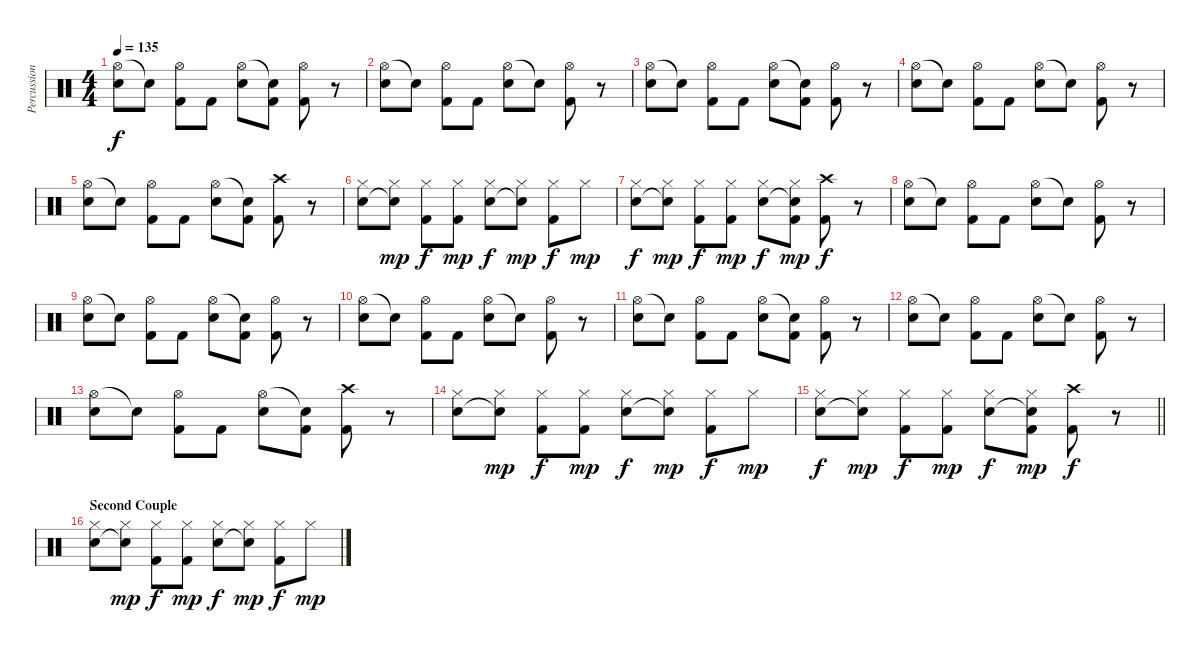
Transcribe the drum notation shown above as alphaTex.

\track ("Percussion" "Percussion") {instrument percussion}
\staff {score}
\articulation defaults
\ts (4 4)
\tempo 135
\clef neutral
\ks c
("Hi-Hat (open)" "Electric Snare (hit)").8{dy f} "Electric Snare (hit)"{t}.8 ("Hi-Hat (open)" "Kick (hit) 2").8 "Kick (hit) 2".8 ("Hi-Hat (open)" "Electric Snare (hit)").8 ("Electric Snare (hit)"{t} "Kick (hit) 2").8 ("Hi-Hat (open)" "Kick (hit) 2").8 r.8 |
("Hi-Hat (open)" "Electric Snare (hit)").8 "Electric Snare (hit)"{t}.8 ("Hi-Hat (open)" "Kick (hit) 2").8 "Kick (hit) 2".8 ("Hi-Hat (open)" "Electric Snare (hit)").8 "Electric Snare (hit)"{t}.8 ("Hi-Hat (open)" "Kick (hit) 2").8 r.8 |
("Hi-Hat (open)" "Electric Snare (hit)").8 "Electric Snare (hit)"{t}.8 ("Hi-Hat (open)" "Kick (hit) 2").8 "Kick (hit) 2".8 ("Hi-Hat (open)" "Electric Snare (hit)").8 ("Electric Snare (hit)"{t} "Kick (hit) 2").8 ("Hi-Hat (open)" "Kick (hit) 2").8 r.8 |
("Hi-Hat (open)" "Electric Snare (hit)").8 "Electric Snare (hit)"{t}.8 ("Hi-Hat (open)" "Kick (hit) 2").8 "Kick (hit) 2".8 ("Hi-Hat (open)" "Electric Snare (hit)").8 "Electric Snare (hit)"{t}.8 ("Hi-Hat (open)" "Kick (hit) 2").8 r.8 |
("Hi-Hat (open)" "Electric Snare (hit)").8 "Electric Snare (hit)"{t}.8 ("Hi-Hat (open)" "Kick (hit) 2").8 "Kick (hit) 2".8 ("Hi-Hat (open)" "Electric Snare (hit)").8 ("Electric Snare (hit)"{t} "Kick (hit) 2").8 ("Crash high (hit)" "Kick (hit) 2").8 r.8 |
("Hi-Hat (closed)" "Electric Snare (hit)").8 ("Hi-Hat (closed)" "Electric Snare (hit)"{t}).8{dy mp} ("Hi-Hat (closed)" "Kick (hit) 2").8{dy f} ("Hi-Hat (closed)" "Kick (hit) 2").8{dy mp} ("Hi-Hat (closed)" "Electric Snare (hit)").8{dy f} ("Hi-Hat (closed)" "Electric Snare (hit)"{t}).8{dy mp} ("Hi-Hat (closed)" "Kick (hit) 2").8{dy f} "Hi-Hat (closed)".8{dy mp} |
("Hi-Hat (closed)" "Electric Snare (hit)").8{dy f} ("Hi-Hat (closed)" "Electric Snare (hit)"{t}).8{dy mp} ("Hi-Hat (closed)" "Kick (hit) 2").8{dy f} ("Hi-Hat (closed)" "Kick (hit) 2").8{dy mp} ("Hi-Hat (closed)" "Electric Snare (hit)").8{dy f} ("Hi-Hat (closed)" "Electric Snare (hit)"{t} "Kick (hit) 2").8{dy mp} ("Crash high (hit)" "Kick (hit) 2").8{dy f} r.8 |
("Hi-Hat (open)" "Electric Snare (hit)").8 "Electric Snare (hit)"{t}.8 ("Hi-Hat (open)" "Kick (hit) 2").8 "Kick (hit) 2".8 ("Hi-Hat (open)" "Electric Snare (hit)").8 "Electric Snare (hit)"{t}.8 ("Hi-Hat (open)" "Kick (hit) 2").8 r.8 |
("Hi-Hat (open)" "Electric Snare (hit)").8 "Electric Snare (hit)"{t}.8 ("Hi-Hat (open)" "Kick (hit) 2").8 "Kick (hit) 2".8 ("Hi-Hat (open)" "Electric Snare (hit)").8 ("Electric Snare (hit)"{t} "Kick (hit) 2").8 ("Hi-Hat (open)" "Kick (hit) 2").8 r.8 |
("Hi-Hat (open)" "Electric Snare (hit)").8 "Electric Snare (hit)"{t}.8 ("Hi-Hat (open)" "Kick (hit) 2").8 "Kick (hit) 2".8 ("Hi-Hat (open)" "Electric Snare (hit)").8 "Electric Snare (hit)"{t}.8 ("Hi-Hat (open)" "Kick (hit) 2").8 r.8 |
("Hi-Hat (open)" "Electric Snare (hit)").8 "Electric Snare (hit)"{t}.8 ("Hi-Hat (open)" "Kick (hit) 2").8 "Kick (hit) 2".8 ("Hi-Hat (open)" "Electric Snare (hit)").8 ("Electric Snare (hit)"{t} "Kick (hit) 2").8 ("Hi-Hat (open)" "Kick (hit) 2").8 r.8 |
("Hi-Hat (open)" "Electric Snare (hit)").8 "Electric Snare (hit)"{t}.8 ("Hi-Hat (open)" "Kick (hit) 2").8 "Kick (hit) 2".8 ("Hi-Hat (open)" "Electric Snare (hit)").8 "Electric Snare (hit)"{t}.8 ("Hi-Hat (open)" "Kick (hit) 2").8 r.8 |
("Hi-Hat (open)" "Electric Snare (hit)").8 "Electric Snare (hit)"{t}.8 ("Hi-Hat (open)" "Kick (hit) 2").8 "Kick (hit) 2".8 ("Hi-Hat (open)" "Electric Snare (hit)").8 ("Electric Snare (hit)"{t} "Kick (hit) 2").8 ("Crash high (hit)" "Kick (hit) 2").8 r.8 |
("Hi-Hat (closed)" "Electric Snare (hit)").8 ("Hi-Hat (closed)" "Electric Snare (hit)"{t}).8{dy mp} ("Hi-Hat (closed)" "Kick (hit) 2").8{dy f} ("Hi-Hat (closed)" "Kick (hit) 2").8{dy mp} ("Hi-Hat (closed)" "Electric Snare (hit)").8{dy f} ("Hi-Hat (closed)" "Electric Snare (hit)"{t}).8{dy mp} ("Hi-Hat (closed)" "Kick (hit) 2").8{dy f} "Hi-Hat (closed)".8{dy mp} |
\barLineRight lightlight
("Hi-Hat (closed)" "Electric Snare (hit)").8{dy f} ("Hi-Hat (closed)" "Electric Snare (hit)"{t}).8{dy mp} ("Hi-Hat (closed)" "Kick (hit) 2").8{dy f} ("Hi-Hat (closed)" "Kick (hit) 2").8{dy mp} ("Hi-Hat (closed)" "Electric Snare (hit)").8{dy f} ("Hi-Hat (closed)" "Electric Snare (hit)"{t} "Kick (hit) 2").8{dy mp} ("Crash high (hit)" "Kick (hit) 2").8{dy f} r.8 |
\section ("" "Second Couple")
("Hi-Hat (closed)" "Electric Snare (hit)").8 ("Hi-Hat (closed)" "Electric Snare (hit)"{t}).8{dy mp} ("Hi-Hat (closed)" "Kick (hit) 2").8{dy f} ("Hi-Hat (closed)" "Kick (hit) 2").8{dy mp} ("Hi-Hat (closed)" "Electric Snare (hit)").8{dy f} ("Hi-Hat (closed)" "Electric Snare (hit)"{t}).8{dy mp} ("Hi-Hat (closed)" "Kick (hit) 2").8{dy f} "Hi-Hat (closed)".8{dy mp}
